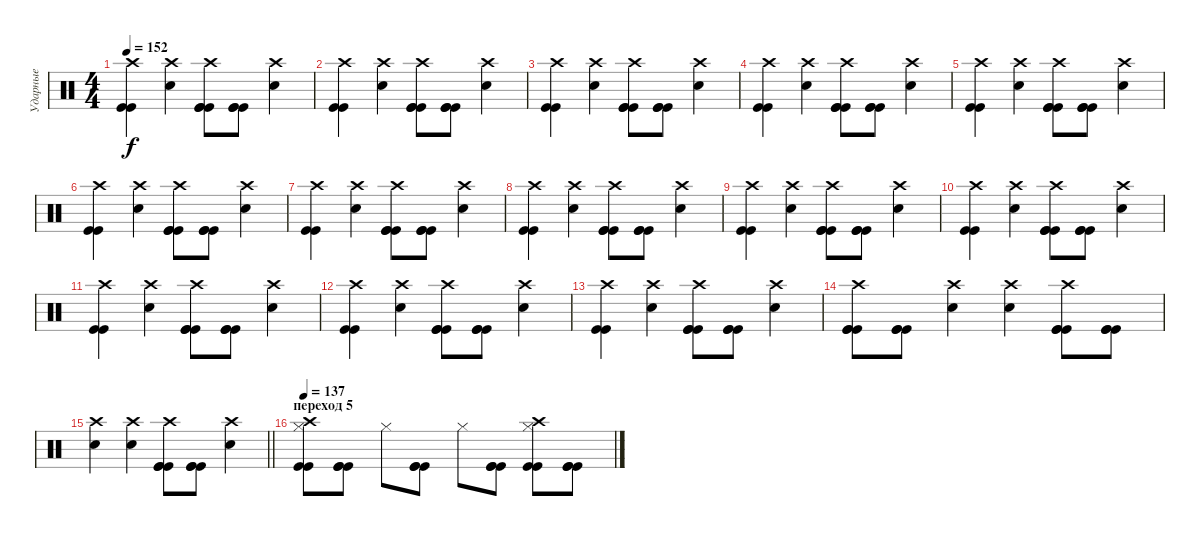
\track ("Ударные" "Ударные") {instrument percussion}
\staff {score}
\articulation defaults
\ts (4 4)
\tempo 152
\clef neutral
\ks c
("Crash high (hit)" "Kick (hit)" "Kick (hit)").4{dy f} ("Snare (hit) 2" "Crash high (hit)").4 ("Kick (hit)" "Kick (hit)" "Kick (hit)" "Crash high (hit)").8 ("Kick (hit)" "Kick (hit)" "Kick (hit)").8 ("Snare (hit) 2" "Crash high (hit)").4 |
("Crash high (hit)" "Kick (hit)" "Kick (hit)").4 ("Snare (hit) 2" "Crash high (hit)").4 ("Kick (hit)" "Kick (hit)" "Kick (hit)" "Crash high (hit)").8 ("Kick (hit)" "Kick (hit)" "Kick (hit)").8 ("Snare (hit) 2" "Crash high (hit)").4 |
("Crash high (hit)" "Kick (hit)" "Kick (hit)").4 ("Snare (hit) 2" "Crash high (hit)").4 ("Kick (hit)" "Kick (hit)" "Kick (hit)" "Crash high (hit)").8 ("Kick (hit)" "Kick (hit)" "Kick (hit)").8 ("Snare (hit) 2" "Crash high (hit)").4 |
("Crash high (hit)" "Kick (hit)" "Kick (hit)").4 ("Snare (hit) 2" "Crash high (hit)").4 ("Kick (hit)" "Kick (hit)" "Kick (hit)" "Crash high (hit)").8 ("Kick (hit)" "Kick (hit)" "Kick (hit)").8 ("Snare (hit) 2" "Crash high (hit)").4 |
("Crash high (hit)" "Kick (hit)" "Kick (hit)").4 ("Snare (hit) 2" "Crash high (hit)").4 ("Kick (hit)" "Kick (hit)" "Kick (hit)" "Crash high (hit)").8 ("Kick (hit)" "Kick (hit)" "Kick (hit)").8 ("Snare (hit) 2" "Crash high (hit)").4 |
("Crash high (hit)" "Kick (hit)" "Kick (hit)").4 ("Snare (hit) 2" "Crash high (hit)").4 ("Kick (hit)" "Kick (hit)" "Kick (hit)" "Crash high (hit)").8 ("Kick (hit)" "Kick (hit)" "Kick (hit)").8 ("Snare (hit) 2" "Crash high (hit)").4 |
("Crash high (hit)" "Kick (hit)" "Kick (hit)").4 ("Snare (hit) 2" "Crash high (hit)").4 ("Kick (hit)" "Kick (hit)" "Kick (hit)" "Crash high (hit)").8 ("Kick (hit)" "Kick (hit)" "Kick (hit)").8 ("Snare (hit) 2" "Crash high (hit)").4 |
("Crash high (hit)" "Kick (hit)" "Kick (hit)").4 ("Snare (hit) 2" "Crash high (hit)").4 ("Kick (hit)" "Kick (hit)" "Kick (hit)" "Crash high (hit)").8 ("Kick (hit)" "Kick (hit)" "Kick (hit)").8 ("Snare (hit) 2" "Crash high (hit)").4 |
("Crash high (hit)" "Kick (hit)" "Kick (hit)").4 ("Snare (hit) 2" "Crash high (hit)").4 ("Kick (hit)" "Kick (hit)" "Kick (hit)" "Crash high (hit)").8 ("Kick (hit)" "Kick (hit)" "Kick (hit)").8 ("Snare (hit) 2" "Crash high (hit)").4 |
("Crash high (hit)" "Kick (hit)" "Kick (hit)").4 ("Snare (hit) 2" "Crash high (hit)").4 ("Kick (hit)" "Kick (hit)" "Kick (hit)" "Crash high (hit)").8 ("Kick (hit)" "Kick (hit)" "Kick (hit)").8 ("Snare (hit) 2" "Crash high (hit)").4 |
("Crash high (hit)" "Kick (hit)" "Kick (hit)").4 ("Snare (hit) 2" "Crash high (hit)").4 ("Kick (hit)" "Kick (hit)" "Kick (hit)" "Crash high (hit)").8 ("Kick (hit)" "Kick (hit)" "Kick (hit)").8 ("Snare (hit) 2" "Crash high (hit)").4 |
("Crash high (hit)" "Kick (hit)" "Kick (hit)").4 ("Snare (hit) 2" "Crash high (hit)").4 ("Kick (hit)" "Kick (hit)" "Kick (hit)" "Crash high (hit)").8 ("Kick (hit)" "Kick (hit)" "Kick (hit)").8 ("Snare (hit) 2" "Crash high (hit)").4 |
("Crash high (hit)" "Kick (hit)" "Kick (hit)").4 ("Snare (hit) 2" "Crash high (hit)").4 ("Kick (hit)" "Kick (hit)" "Kick (hit)" "Crash high (hit)").8 ("Kick (hit)" "Kick (hit)" "Kick (hit)").8 ("Snare (hit) 2" "Crash high (hit)").4 |
("Kick (hit)" "Kick (hit)" "Kick (hit)" "Crash high (hit)").8 ("Kick (hit)" "Kick (hit)" "Kick (hit)").8 ("Snare (hit) 2" "Crash high (hit)").4 ("Snare (hit) 2" "Crash high (hit)").4 ("Kick (hit)" "Kick (hit)" "Kick (hit)" "Crash high (hit)").8 ("Kick (hit)" "Kick (hit)" "Kick (hit)").8 |
\barLineRight lightlight
("Snare (hit) 2" "Crash high (hit)").4 ("Snare (hit) 2" "Crash high (hit)").4 ("Kick (hit)" "Kick (hit)" "Kick (hit)" "Crash high (hit)").8 ("Kick (hit)" "Kick (hit)" "Kick (hit)").8 ("Snare (hit) 2" "Crash high (hit)").4 |
\section ("" "переход 5")
\tempo 137
("Kick (hit)" "Kick (hit)" "Hi-Hat (closed)" "Crash high (hit)").8 ("Kick (hit)" "Kick (hit)" "Kick (hit)").8 "Hi-Hat (closed)".8 ("Kick (hit)" "Kick (hit)" "Kick (hit)").8 "Hi-Hat (closed)".8 ("Kick (hit)" "Kick (hit)" "Kick (hit)").8 ("Kick (hit)" "Kick (hit)" "Hi-Hat (closed)" "Crash high (hit)").8 ("Kick (hit)" "Kick (hit)" "Kick (hit)").8
